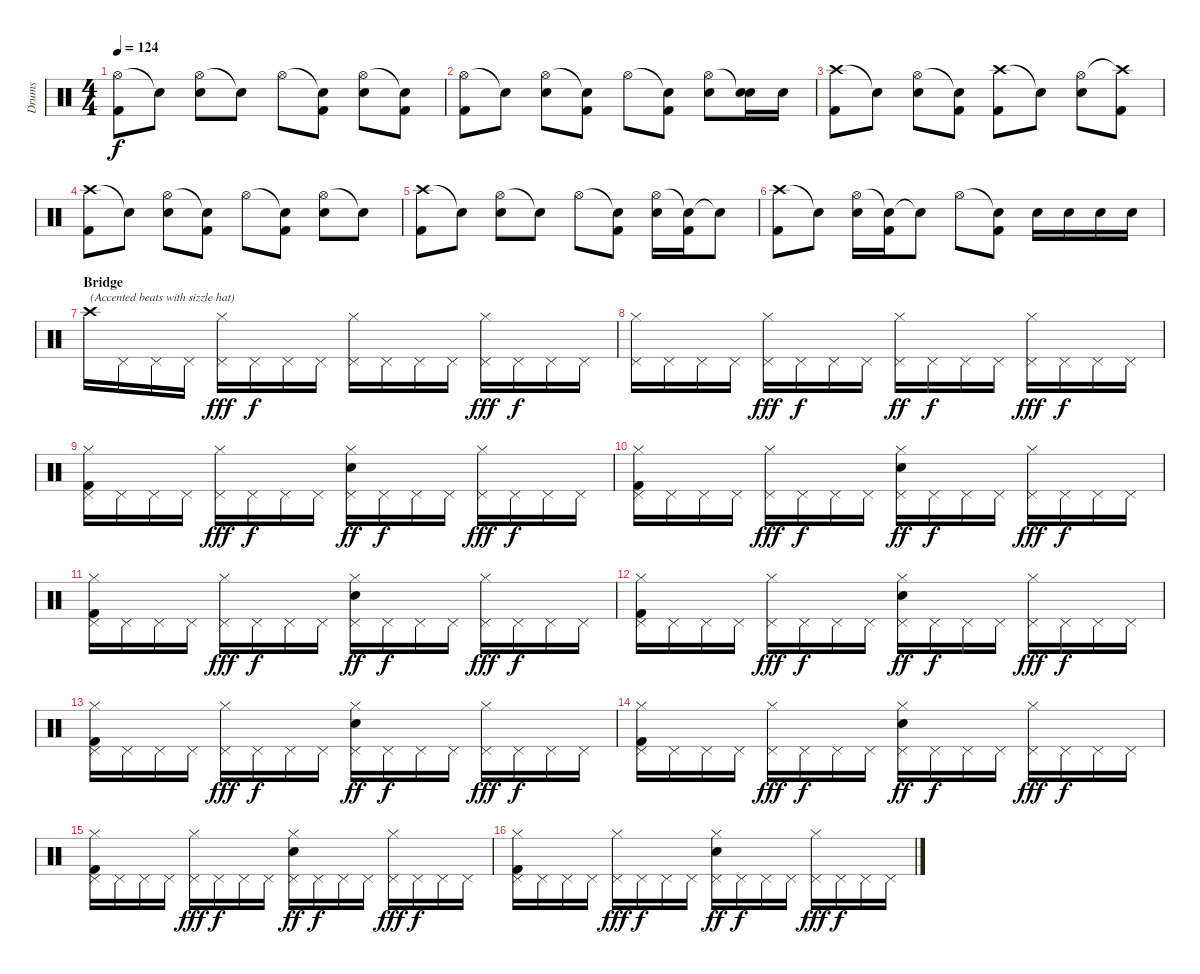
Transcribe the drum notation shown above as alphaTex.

\track ("Drums" "Drums") {instrument percussion}
\staff {score}
\articulation defaults
\ts (4 4)
\tempo 124
\clef neutral
\ks c
("Hi-Hat (open)" "Kick (hit) 2").8{dy f} "Snare (hit)"{t}.8 ("Hi-Hat (open)" "Electric Snare (hit)").8 "Snare (hit)"{t}.8 "Hi-Hat (open)".8 ("Snare (hit)"{t} "Kick (hit) 2").8 ("Hi-Hat (open)" "Electric Snare (hit)").8 ("Snare (hit)"{t} "Kick (hit) 2").8 |
\ks aminor
("Hi-Hat (open)" "Kick (hit) 2").8 "Snare (hit)"{t}.8 ("Hi-Hat (open)" "Electric Snare (hit)").8 ("Snare (hit)"{t} "Kick (hit) 2").8 "Hi-Hat (open)".8 ("Snare (hit)"{t} "Kick (hit) 2").8 ("Hi-Hat (open)" "Electric Snare (hit)").8 ("Snare (hit)"{t} "Electric Snare (hit)").16 "Electric Snare (hit)".16 |
\ks c
("Crash high (hit)" "Kick (hit) 2").8 "Snare (hit)"{t}.8 ("Hi-Hat (open)" "Electric Snare (hit)").8 ("Snare (hit)"{t} "Kick (hit) 2").8 ("Crash high (hit)" "Kick (hit) 2").8 "Snare (hit)"{t}.8 ("Hi-Hat (open)" "Electric Snare (hit)").8 ("Crash high (hit)"{t} "Kick (hit) 2").8 |
("Crash high (hit)" "Kick (hit) 2").8 "Snare (hit)"{t}.8 ("Hi-Hat (open)" "Electric Snare (hit)").8 ("Snare (hit)"{t} "Kick (hit) 2").8 "Hi-Hat (open)".8 ("Snare (hit)"{t} "Kick (hit) 2").8 ("Hi-Hat (open)" "Electric Snare (hit)").8 "Snare (hit)"{t}.8 |
\ks aminor
("Crash high (hit)" "Kick (hit) 2").8 "Snare (hit)"{t}.8 ("Hi-Hat (open)" "Electric Snare (hit)").8 "Snare (hit)"{t}.8 "Hi-Hat (open)".8 ("Snare (hit)"{t} "Kick (hit) 2").8 ("Hi-Hat (open)" "Electric Snare (hit)").16 ("Snare (hit)"{t} "Kick (hit) 2").16 "Snare (hit)"{t}.8 |
\ks c
("Crash high (hit)" "Kick (hit) 2").8 "Snare (hit)"{t}.8 ("Hi-Hat (open)" "Electric Snare (hit)").16 ("Snare (hit)"{t} "Kick (hit) 2").16 "Snare (hit)"{t}.8 "Hi-Hat (open)".8 ("Snare (hit)"{t} "Kick (hit) 2").8 "Electric Snare (hit)".16 "Electric Snare (hit)".16 "Electric Snare (hit)".16 "Electric Snare (hit)".16 |
\section ("" "Bridge")
"Crash high (hit)".16{txt "(Accented beats with sizzle hat)"} "Pedal Hi-Hat (hit)".16 "Pedal Hi-Hat (hit)".16 "Pedal Hi-Hat (hit)".16 ("Hi-Hat (closed)" "Pedal Hi-Hat (hit)").16{dy fff} "Pedal Hi-Hat (hit)".16{dy f} "Pedal Hi-Hat (hit)".16 "Pedal Hi-Hat (hit)".16 ("Hi-Hat (closed)" "Pedal Hi-Hat (hit)").16 "Pedal Hi-Hat (hit)".16 "Pedal Hi-Hat (hit)".16 "Pedal Hi-Hat (hit)".16 ("Hi-Hat (closed)" "Pedal Hi-Hat (hit)").16{dy fff} "Pedal Hi-Hat (hit)".16{dy f} "Pedal Hi-Hat (hit)".16 "Pedal Hi-Hat (hit)".16 |
("Hi-Hat (closed)" "Pedal Hi-Hat (hit)").16 "Pedal Hi-Hat (hit)".16 "Pedal Hi-Hat (hit)".16 "Pedal Hi-Hat (hit)".16 ("Hi-Hat (closed)" "Pedal Hi-Hat (hit)").16{dy fff} "Pedal Hi-Hat (hit)".16{dy f} "Pedal Hi-Hat (hit)".16 "Pedal Hi-Hat (hit)".16 ("Hi-Hat (closed)" "Pedal Hi-Hat (hit)").16{dy ff} "Pedal Hi-Hat (hit)".16{dy f} "Pedal Hi-Hat (hit)".16 "Pedal Hi-Hat (hit)".16 ("Hi-Hat (closed)" "Pedal Hi-Hat (hit)").16{dy fff} "Pedal Hi-Hat (hit)".16{dy f} "Pedal Hi-Hat (hit)".16 "Pedal Hi-Hat (hit)".16 |
("Hi-Hat (closed)" "Pedal Hi-Hat (hit)" "Kick (hit) 2").16 "Pedal Hi-Hat (hit)".16 "Pedal Hi-Hat (hit)".16 "Pedal Hi-Hat (hit)".16 ("Hi-Hat (closed)" "Pedal Hi-Hat (hit)").16{dy fff} "Pedal Hi-Hat (hit)".16{dy f} "Pedal Hi-Hat (hit)".16 "Pedal Hi-Hat (hit)".16 ("Hi-Hat (closed)" "Pedal Hi-Hat (hit)" "Electric Snare (hit)").16{dy ff} "Pedal Hi-Hat (hit)".16{dy f} "Pedal Hi-Hat (hit)".16 "Pedal Hi-Hat (hit)".16 ("Hi-Hat (closed)" "Pedal Hi-Hat (hit)").16{dy fff} "Pedal Hi-Hat (hit)".16{dy f} "Pedal Hi-Hat (hit)".16 "Pedal Hi-Hat (hit)".16 |
("Hi-Hat (closed)" "Pedal Hi-Hat (hit)" "Kick (hit) 2").16 "Pedal Hi-Hat (hit)".16 "Pedal Hi-Hat (hit)".16 "Pedal Hi-Hat (hit)".16 ("Hi-Hat (closed)" "Pedal Hi-Hat (hit)").16{dy fff} "Pedal Hi-Hat (hit)".16{dy f} "Pedal Hi-Hat (hit)".16 "Pedal Hi-Hat (hit)".16 ("Hi-Hat (closed)" "Pedal Hi-Hat (hit)" "Electric Snare (hit)").16{dy ff} "Pedal Hi-Hat (hit)".16{dy f} "Pedal Hi-Hat (hit)".16 "Pedal Hi-Hat (hit)".16 ("Hi-Hat (closed)" "Pedal Hi-Hat (hit)").16{dy fff} "Pedal Hi-Hat (hit)".16{dy f} "Pedal Hi-Hat (hit)".16 "Pedal Hi-Hat (hit)".16 |
("Hi-Hat (closed)" "Pedal Hi-Hat (hit)" "Kick (hit) 2").16 "Pedal Hi-Hat (hit)".16 "Pedal Hi-Hat (hit)".16 "Pedal Hi-Hat (hit)".16 ("Hi-Hat (closed)" "Pedal Hi-Hat (hit)").16{dy fff} "Pedal Hi-Hat (hit)".16{dy f} "Pedal Hi-Hat (hit)".16 "Pedal Hi-Hat (hit)".16 ("Hi-Hat (closed)" "Pedal Hi-Hat (hit)" "Electric Snare (hit)").16{dy ff} "Pedal Hi-Hat (hit)".16{dy f} "Pedal Hi-Hat (hit)".16 "Pedal Hi-Hat (hit)".16 ("Hi-Hat (closed)" "Pedal Hi-Hat (hit)").16{dy fff} "Pedal Hi-Hat (hit)".16{dy f} "Pedal Hi-Hat (hit)".16 "Pedal Hi-Hat (hit)".16 |
("Hi-Hat (closed)" "Pedal Hi-Hat (hit)" "Kick (hit) 2").16 "Pedal Hi-Hat (hit)".16 "Pedal Hi-Hat (hit)".16 "Pedal Hi-Hat (hit)".16 ("Hi-Hat (closed)" "Pedal Hi-Hat (hit)").16{dy fff} "Pedal Hi-Hat (hit)".16{dy f} "Pedal Hi-Hat (hit)".16 "Pedal Hi-Hat (hit)".16 ("Hi-Hat (closed)" "Pedal Hi-Hat (hit)" "Electric Snare (hit)").16{dy ff} "Pedal Hi-Hat (hit)".16{dy f} "Pedal Hi-Hat (hit)".16 "Pedal Hi-Hat (hit)".16 ("Hi-Hat (closed)" "Pedal Hi-Hat (hit)").16{dy fff} "Pedal Hi-Hat (hit)".16{dy f} "Pedal Hi-Hat (hit)".16 "Pedal Hi-Hat (hit)".16 |
("Hi-Hat (closed)" "Pedal Hi-Hat (hit)" "Kick (hit) 2").16 "Pedal Hi-Hat (hit)".16 "Pedal Hi-Hat (hit)".16 "Pedal Hi-Hat (hit)".16 ("Hi-Hat (closed)" "Pedal Hi-Hat (hit)").16{dy fff} "Pedal Hi-Hat (hit)".16{dy f} "Pedal Hi-Hat (hit)".16 "Pedal Hi-Hat (hit)".16 ("Hi-Hat (closed)" "Pedal Hi-Hat (hit)" "Electric Snare (hit)").16{dy ff} "Pedal Hi-Hat (hit)".16{dy f} "Pedal Hi-Hat (hit)".16 "Pedal Hi-Hat (hit)".16 ("Hi-Hat (closed)" "Pedal Hi-Hat (hit)").16{dy fff} "Pedal Hi-Hat (hit)".16{dy f} "Pedal Hi-Hat (hit)".16 "Pedal Hi-Hat (hit)".16 |
("Hi-Hat (closed)" "Pedal Hi-Hat (hit)" "Kick (hit) 2").16 "Pedal Hi-Hat (hit)".16 "Pedal Hi-Hat (hit)".16 "Pedal Hi-Hat (hit)".16 ("Hi-Hat (closed)" "Pedal Hi-Hat (hit)").16{dy fff} "Pedal Hi-Hat (hit)".16{dy f} "Pedal Hi-Hat (hit)".16 "Pedal Hi-Hat (hit)".16 ("Hi-Hat (closed)" "Pedal Hi-Hat (hit)" "Electric Snare (hit)").16{dy ff} "Pedal Hi-Hat (hit)".16{dy f} "Pedal Hi-Hat (hit)".16 "Pedal Hi-Hat (hit)".16 ("Hi-Hat (closed)" "Pedal Hi-Hat (hit)").16{dy fff} "Pedal Hi-Hat (hit)".16{dy f} "Pedal Hi-Hat (hit)".16 "Pedal Hi-Hat (hit)".16 |
("Hi-Hat (closed)" "Pedal Hi-Hat (hit)" "Kick (hit) 2").16 "Pedal Hi-Hat (hit)".16 "Pedal Hi-Hat (hit)".16 "Pedal Hi-Hat (hit)".16 ("Hi-Hat (closed)" "Pedal Hi-Hat (hit)").16{dy fff} "Pedal Hi-Hat (hit)".16{dy f} "Pedal Hi-Hat (hit)".16 "Pedal Hi-Hat (hit)".16 ("Hi-Hat (closed)" "Pedal Hi-Hat (hit)" "Electric Snare (hit)").16{dy ff} "Pedal Hi-Hat (hit)".16{dy f} "Pedal Hi-Hat (hit)".16 "Pedal Hi-Hat (hit)".16 ("Hi-Hat (closed)" "Pedal Hi-Hat (hit)").16{dy fff} "Pedal Hi-Hat (hit)".16{dy f} "Pedal Hi-Hat (hit)".16 "Pedal Hi-Hat (hit)".16 |
("Hi-Hat (closed)" "Pedal Hi-Hat (hit)" "Kick (hit) 2").16 "Pedal Hi-Hat (hit)".16 "Pedal Hi-Hat (hit)".16 "Pedal Hi-Hat (hit)".16 ("Hi-Hat (closed)" "Pedal Hi-Hat (hit)").16{dy fff} "Pedal Hi-Hat (hit)".16{dy f} "Pedal Hi-Hat (hit)".16 "Pedal Hi-Hat (hit)".16 ("Hi-Hat (closed)" "Pedal Hi-Hat (hit)" "Electric Snare (hit)").16{dy ff} "Pedal Hi-Hat (hit)".16{dy f} "Pedal Hi-Hat (hit)".16 "Pedal Hi-Hat (hit)".16 ("Hi-Hat (closed)" "Pedal Hi-Hat (hit)").16{dy fff} "Pedal Hi-Hat (hit)".16{dy f} "Pedal Hi-Hat (hit)".16 "Pedal Hi-Hat (hit)".16
